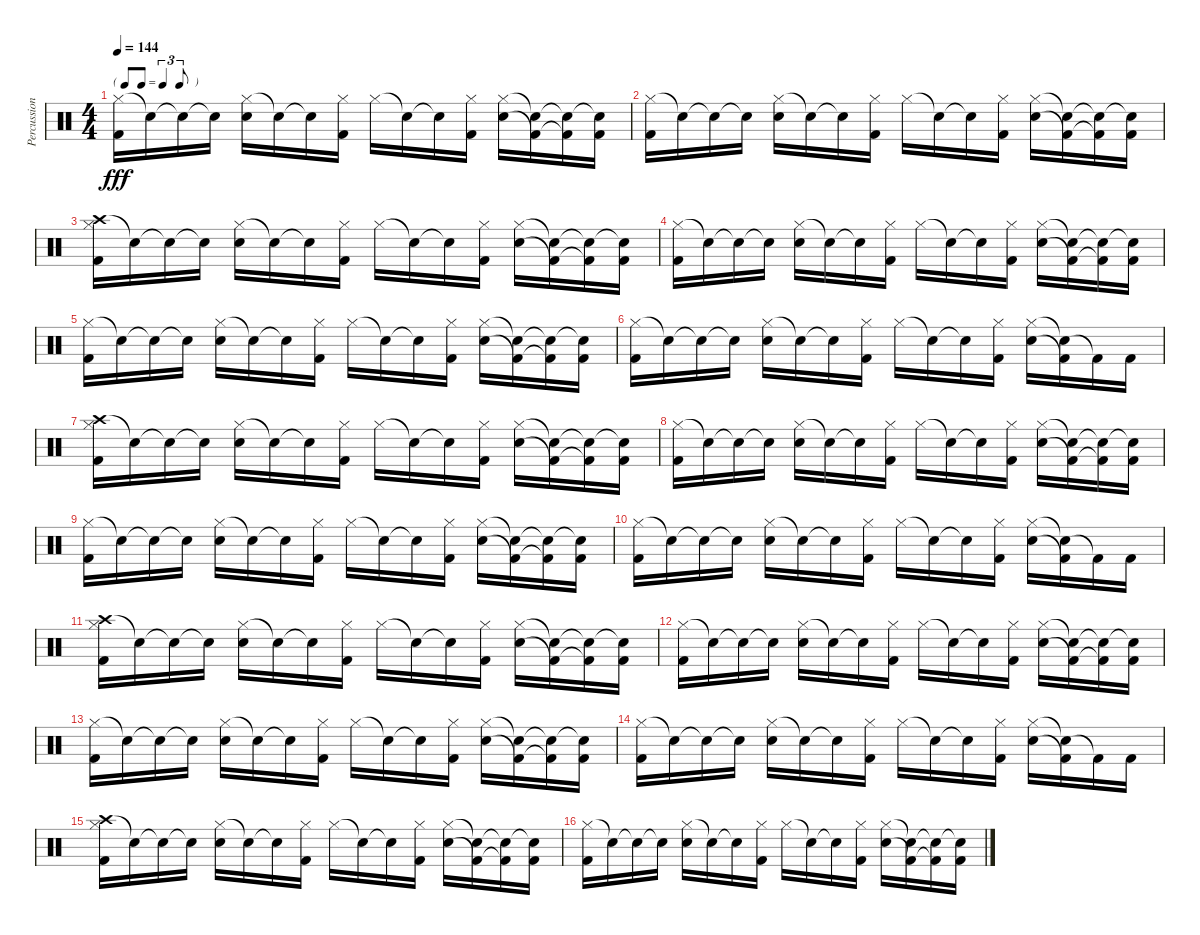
\track ("Percussion" "Percussion") {instrument percussion}
\staff {score}
\articulation defaults
\ts (4 4)
\tf triplet8th
\tempo 144
\clef neutral
\ks c
("Hi-Hat (closed)" "Kick (hit) 2").16{dy fff} "Snare (hit)"{t}.16 "Snare (hit)"{t}.16 "Snare (hit)"{t}.16 ("Hi-Hat (closed)" "Electric Snare (hit)").16 "Snare (hit)"{t}.16 "Snare (hit)"{t}.16 ("Hi-Hat (closed)" "Kick (hit) 2").16 "Hi-Hat (closed)".16 "Snare (hit)"{t}.16 "Snare (hit)"{t}.16 ("Hi-Hat (closed)" "Kick (hit) 2").16 ("Hi-Hat (closed)" "Electric Snare (hit)").16 ("Snare (hit)"{t} "Kick (hit) 2"{t}).16 ("Snare (hit)"{t} "Kick (hit) 2"{t}).16 ("Snare (hit)"{t} "Kick (hit) 2").16 |
("Hi-Hat (closed)" "Kick (hit) 2").16 "Snare (hit)"{t}.16 "Snare (hit)"{t}.16 "Snare (hit)"{t}.16 ("Hi-Hat (closed)" "Electric Snare (hit)").16 "Snare (hit)"{t}.16 "Snare (hit)"{t}.16 ("Hi-Hat (closed)" "Kick (hit) 2").16 "Hi-Hat (closed)".16 "Snare (hit)"{t}.16 "Snare (hit)"{t}.16 ("Hi-Hat (closed)" "Kick (hit) 2").16 ("Hi-Hat (closed)" "Electric Snare (hit)").16 ("Snare (hit)"{t} "Kick (hit) 2"{t}).16 ("Snare (hit)"{t} "Kick (hit) 2"{t}).16 ("Snare (hit)"{t} "Kick (hit) 2").16 |
("Crash high (hit)" "Hi-Hat (closed)" "Kick (hit) 2").16 "Snare (hit)"{t}.16 "Snare (hit)"{t}.16 "Snare (hit)"{t}.16 ("Hi-Hat (closed)" "Electric Snare (hit)").16 "Snare (hit)"{t}.16 "Snare (hit)"{t}.16 ("Hi-Hat (closed)" "Kick (hit) 2").16 "Hi-Hat (closed)".16 "Snare (hit)"{t}.16 "Snare (hit)"{t}.16 ("Hi-Hat (closed)" "Kick (hit) 2").16 ("Hi-Hat (closed)" "Electric Snare (hit)").16 ("Snare (hit)"{t} "Kick (hit) 2"{t}).16 ("Snare (hit)"{t} "Kick (hit) 2"{t}).16 ("Snare (hit)"{t} "Kick (hit) 2").16 |
("Hi-Hat (closed)" "Kick (hit) 2").16 "Snare (hit)"{t}.16 "Snare (hit)"{t}.16 "Snare (hit)"{t}.16 ("Hi-Hat (closed)" "Electric Snare (hit)").16 "Snare (hit)"{t}.16 "Snare (hit)"{t}.16 ("Hi-Hat (closed)" "Kick (hit) 2").16 "Hi-Hat (closed)".16 "Snare (hit)"{t}.16 "Snare (hit)"{t}.16 ("Hi-Hat (closed)" "Kick (hit) 2").16 ("Hi-Hat (closed)" "Electric Snare (hit)").16 ("Snare (hit)"{t} "Kick (hit) 2"{t}).16 ("Snare (hit)"{t} "Kick (hit) 2"{t}).16 ("Snare (hit)"{t} "Kick (hit) 2").16 |
("Hi-Hat (closed)" "Kick (hit) 2").16 "Snare (hit)"{t}.16 "Snare (hit)"{t}.16 "Snare (hit)"{t}.16 ("Hi-Hat (closed)" "Electric Snare (hit)").16 "Snare (hit)"{t}.16 "Snare (hit)"{t}.16 ("Hi-Hat (closed)" "Kick (hit) 2").16 "Hi-Hat (closed)".16 "Snare (hit)"{t}.16 "Snare (hit)"{t}.16 ("Hi-Hat (closed)" "Kick (hit) 2").16 ("Hi-Hat (closed)" "Electric Snare (hit)").16 ("Snare (hit)"{t} "Kick (hit) 2"{t}).16 ("Snare (hit)"{t} "Kick (hit) 2"{t}).16 ("Snare (hit)"{t} "Kick (hit) 2").16 |
("Hi-Hat (closed)" "Kick (hit) 2").16 "Snare (hit)"{t}.16 "Snare (hit)"{t}.16 "Snare (hit)"{t}.16 ("Hi-Hat (closed)" "Electric Snare (hit)").16 "Snare (hit)"{t}.16 "Snare (hit)"{t}.16 ("Hi-Hat (closed)" "Kick (hit) 2").16 "Hi-Hat (closed)".16 "Snare (hit)"{t}.16 "Snare (hit)"{t}.16 ("Hi-Hat (closed)" "Kick (hit) 2").16 ("Hi-Hat (closed)" "Electric Snare (hit)").16 ("Snare (hit)"{t} "Kick (hit) 2"{t}).16 "Kick (hit) 2"{t}.16 "Kick (hit) 2".16 |
("Crash high (hit)" "Hi-Hat (closed)" "Kick (hit) 2").16 "Snare (hit)"{t}.16 "Snare (hit)"{t}.16 "Snare (hit)"{t}.16 ("Hi-Hat (closed)" "Electric Snare (hit)").16 "Snare (hit)"{t}.16 "Snare (hit)"{t}.16 ("Hi-Hat (closed)" "Kick (hit) 2").16 "Hi-Hat (closed)".16 "Snare (hit)"{t}.16 "Snare (hit)"{t}.16 ("Hi-Hat (closed)" "Kick (hit) 2").16 ("Hi-Hat (closed)" "Electric Snare (hit)").16 ("Snare (hit)"{t} "Kick (hit) 2"{t}).16 ("Snare (hit)"{t} "Kick (hit) 2"{t}).16 ("Snare (hit)"{t} "Kick (hit) 2").16 |
("Hi-Hat (closed)" "Kick (hit) 2").16 "Snare (hit)"{t}.16 "Snare (hit)"{t}.16 "Snare (hit)"{t}.16 ("Hi-Hat (closed)" "Electric Snare (hit)").16 "Snare (hit)"{t}.16 "Snare (hit)"{t}.16 ("Hi-Hat (closed)" "Kick (hit) 2").16 "Hi-Hat (closed)".16 "Snare (hit)"{t}.16 "Snare (hit)"{t}.16 ("Hi-Hat (closed)" "Kick (hit) 2").16 ("Hi-Hat (closed)" "Electric Snare (hit)").16 ("Snare (hit)"{t} "Kick (hit) 2"{t}).16 ("Snare (hit)"{t} "Kick (hit) 2"{t}).16 ("Snare (hit)"{t} "Kick (hit) 2").16 |
("Hi-Hat (closed)" "Kick (hit) 2").16 "Snare (hit)"{t}.16 "Snare (hit)"{t}.16 "Snare (hit)"{t}.16 ("Hi-Hat (closed)" "Electric Snare (hit)").16 "Snare (hit)"{t}.16 "Snare (hit)"{t}.16 ("Hi-Hat (closed)" "Kick (hit) 2").16 "Hi-Hat (closed)".16 "Snare (hit)"{t}.16 "Snare (hit)"{t}.16 ("Hi-Hat (closed)" "Kick (hit) 2").16 ("Hi-Hat (closed)" "Electric Snare (hit)").16 ("Snare (hit)"{t} "Kick (hit) 2"{t}).16 ("Snare (hit)"{t} "Kick (hit) 2"{t}).16 ("Snare (hit)"{t} "Kick (hit) 2").16 |
("Hi-Hat (closed)" "Kick (hit) 2").16 "Snare (hit)"{t}.16 "Snare (hit)"{t}.16 "Snare (hit)"{t}.16 ("Hi-Hat (closed)" "Electric Snare (hit)").16 "Snare (hit)"{t}.16 "Snare (hit)"{t}.16 ("Hi-Hat (closed)" "Kick (hit) 2").16 "Hi-Hat (closed)".16 "Snare (hit)"{t}.16 "Snare (hit)"{t}.16 ("Hi-Hat (closed)" "Kick (hit) 2").16 ("Hi-Hat (closed)" "Electric Snare (hit)").16 ("Snare (hit)"{t} "Kick (hit) 2"{t}).16 "Kick (hit) 2"{t}.16 "Kick (hit) 2".16 |
("Crash high (hit)" "Hi-Hat (closed)" "Kick (hit) 2").16 "Snare (hit)"{t}.16 "Snare (hit)"{t}.16 "Snare (hit)"{t}.16 ("Hi-Hat (closed)" "Electric Snare (hit)").16 "Snare (hit)"{t}.16 "Snare (hit)"{t}.16 ("Hi-Hat (closed)" "Kick (hit) 2").16 "Hi-Hat (closed)".16 "Snare (hit)"{t}.16 "Snare (hit)"{t}.16 ("Hi-Hat (closed)" "Kick (hit) 2").16 ("Hi-Hat (closed)" "Electric Snare (hit)").16 ("Snare (hit)"{t} "Kick (hit) 2"{t}).16 ("Snare (hit)"{t} "Kick (hit) 2"{t}).16 ("Snare (hit)"{t} "Kick (hit) 2").16 |
("Hi-Hat (closed)" "Kick (hit) 2").16 "Snare (hit)"{t}.16 "Snare (hit)"{t}.16 "Snare (hit)"{t}.16 ("Hi-Hat (closed)" "Electric Snare (hit)").16 "Snare (hit)"{t}.16 "Snare (hit)"{t}.16 ("Hi-Hat (closed)" "Kick (hit) 2").16 "Hi-Hat (closed)".16 "Snare (hit)"{t}.16 "Snare (hit)"{t}.16 ("Hi-Hat (closed)" "Kick (hit) 2").16 ("Hi-Hat (closed)" "Electric Snare (hit)").16 ("Snare (hit)"{t} "Kick (hit) 2"{t}).16 ("Snare (hit)"{t} "Kick (hit) 2"{t}).16 ("Snare (hit)"{t} "Kick (hit) 2").16 |
("Hi-Hat (closed)" "Kick (hit) 2").16 "Snare (hit)"{t}.16 "Snare (hit)"{t}.16 "Snare (hit)"{t}.16 ("Hi-Hat (closed)" "Electric Snare (hit)").16 "Snare (hit)"{t}.16 "Snare (hit)"{t}.16 ("Hi-Hat (closed)" "Kick (hit) 2").16 "Hi-Hat (closed)".16 "Snare (hit)"{t}.16 "Snare (hit)"{t}.16 ("Hi-Hat (closed)" "Kick (hit) 2").16 ("Hi-Hat (closed)" "Electric Snare (hit)").16 ("Snare (hit)"{t} "Kick (hit) 2"{t}).16 ("Snare (hit)"{t} "Kick (hit) 2"{t}).16 ("Snare (hit)"{t} "Kick (hit) 2").16 |
("Hi-Hat (closed)" "Kick (hit) 2").16 "Snare (hit)"{t}.16 "Snare (hit)"{t}.16 "Snare (hit)"{t}.16 ("Hi-Hat (closed)" "Electric Snare (hit)").16 "Snare (hit)"{t}.16 "Snare (hit)"{t}.16 ("Hi-Hat (closed)" "Kick (hit) 2").16 "Hi-Hat (closed)".16 "Snare (hit)"{t}.16 "Snare (hit)"{t}.16 ("Hi-Hat (closed)" "Kick (hit) 2").16 ("Hi-Hat (closed)" "Electric Snare (hit)").16 ("Snare (hit)"{t} "Kick (hit) 2"{t}).16 "Kick (hit) 2"{t}.16 "Kick (hit) 2".16 |
("Crash high (hit)" "Hi-Hat (closed)" "Kick (hit) 2").16 "Snare (hit)"{t}.16 "Snare (hit)"{t}.16 "Snare (hit)"{t}.16 ("Hi-Hat (closed)" "Electric Snare (hit)").16 "Snare (hit)"{t}.16 "Snare (hit)"{t}.16 ("Hi-Hat (closed)" "Kick (hit) 2").16 "Hi-Hat (closed)".16 "Snare (hit)"{t}.16 "Snare (hit)"{t}.16 ("Hi-Hat (closed)" "Kick (hit) 2").16 ("Hi-Hat (closed)" "Electric Snare (hit)").16 ("Snare (hit)"{t} "Kick (hit) 2"{t}).16 ("Snare (hit)"{t} "Kick (hit) 2"{t}).16 ("Snare (hit)"{t} "Kick (hit) 2").16 |
("Hi-Hat (closed)" "Kick (hit) 2").16 "Snare (hit)"{t}.16 "Snare (hit)"{t}.16 "Snare (hit)"{t}.16 ("Hi-Hat (closed)" "Electric Snare (hit)").16 "Snare (hit)"{t}.16 "Snare (hit)"{t}.16 ("Hi-Hat (closed)" "Kick (hit) 2").16 "Hi-Hat (closed)".16 "Snare (hit)"{t}.16 "Snare (hit)"{t}.16 ("Hi-Hat (closed)" "Kick (hit) 2").16 ("Hi-Hat (closed)" "Electric Snare (hit)").16 ("Snare (hit)"{t} "Kick (hit) 2"{t}).16 ("Snare (hit)"{t} "Kick (hit) 2"{t}).16 ("Snare (hit)"{t} "Kick (hit) 2").16
